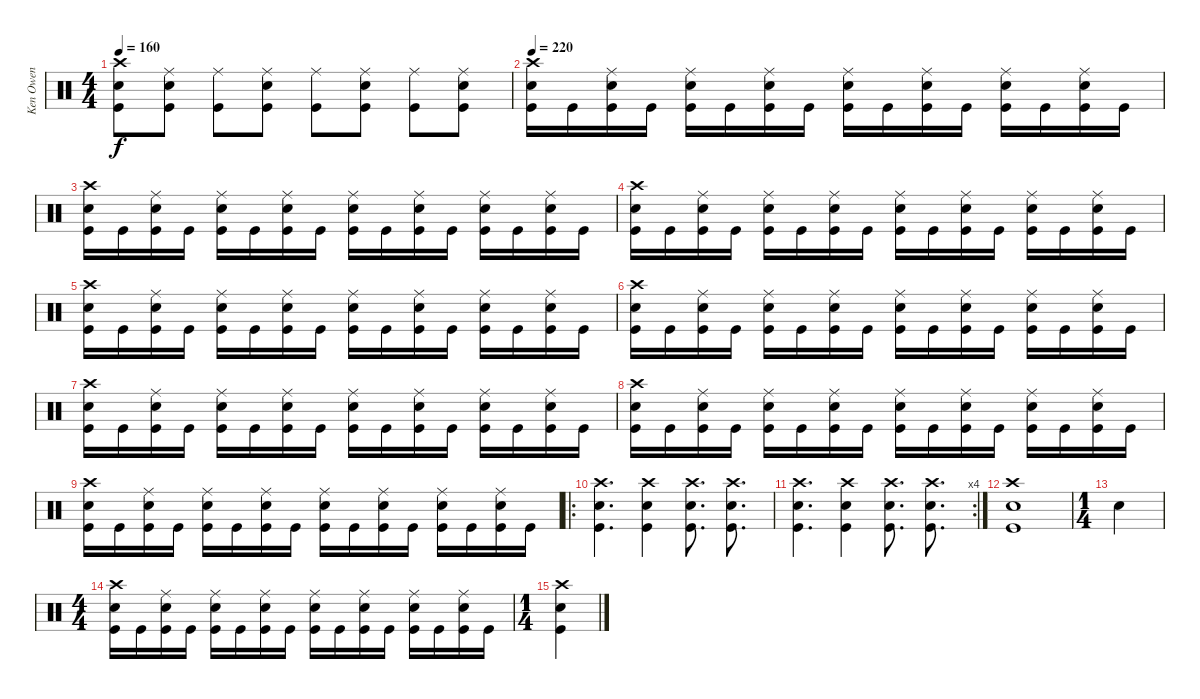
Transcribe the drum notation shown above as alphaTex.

\track ("Ken Owen" "Ken Owen") {instrument percussion}
\staff {score}
\articulation defaults
\ts (4 4)
\tempo 160
\clef neutral
\ks c
("Crash high (hit)" "Snare (hit) 2" "Kick (hit)").8{dy f} ("Ride (middle)" "Snare (hit) 2" "Kick (hit)").8 ("Ride (middle)" "Kick (hit)").8 ("Ride (middle)" "Snare (hit) 2" "Kick (hit)").8 ("Ride (middle)" "Kick (hit)").8 ("Ride (middle)" "Snare (hit) 2" "Kick (hit)").8 ("Ride (middle)" "Kick (hit)").8 ("Ride (middle)" "Snare (hit) 2" "Kick (hit)").8 |
\tempo 220
("Crash high (hit)" "Snare (hit) 2" "Kick (hit)").16 "Kick (hit)".16 ("Ride (middle)" "Snare (hit) 2" "Kick (hit)").16 "Kick (hit)".16 ("Ride (middle)" "Snare (hit) 2" "Kick (hit)").16 "Kick (hit)".16 ("Ride (middle)" "Snare (hit) 2" "Kick (hit)").16 "Kick (hit)".16 ("Ride (middle)" "Snare (hit) 2" "Kick (hit)").16 "Kick (hit)".16 ("Ride (middle)" "Snare (hit) 2" "Kick (hit)").16 "Kick (hit)".16 ("Ride (middle)" "Snare (hit) 2" "Kick (hit)").16 "Kick (hit)".16 ("Ride (middle)" "Snare (hit) 2" "Kick (hit)").16 "Kick (hit)".16 |
("Crash high (hit)" "Snare (hit) 2" "Kick (hit)").16 "Kick (hit)".16 ("Ride (middle)" "Snare (hit) 2" "Kick (hit)").16 "Kick (hit)".16 ("Ride (middle)" "Snare (hit) 2" "Kick (hit)").16 "Kick (hit)".16 ("Ride (middle)" "Snare (hit) 2" "Kick (hit)").16 "Kick (hit)".16 ("Ride (middle)" "Snare (hit) 2" "Kick (hit)").16 "Kick (hit)".16 ("Ride (middle)" "Snare (hit) 2" "Kick (hit)").16 "Kick (hit)".16 ("Ride (middle)" "Snare (hit) 2" "Kick (hit)").16 "Kick (hit)".16 ("Ride (middle)" "Snare (hit) 2" "Kick (hit)").16 "Kick (hit)".16 |
("Crash high (hit)" "Snare (hit) 2" "Kick (hit)").16 "Kick (hit)".16 ("Ride (middle)" "Snare (hit) 2" "Kick (hit)").16 "Kick (hit)".16 ("Ride (middle)" "Snare (hit) 2" "Kick (hit)").16 "Kick (hit)".16 ("Ride (middle)" "Snare (hit) 2" "Kick (hit)").16 "Kick (hit)".16 ("Ride (middle)" "Snare (hit) 2" "Kick (hit)").16 "Kick (hit)".16 ("Ride (middle)" "Snare (hit) 2" "Kick (hit)").16 "Kick (hit)".16 ("Ride (middle)" "Snare (hit) 2" "Kick (hit)").16 "Kick (hit)".16 ("Ride (middle)" "Snare (hit) 2" "Kick (hit)").16 "Kick (hit)".16 |
("Crash high (hit)" "Snare (hit) 2" "Kick (hit)").16 "Kick (hit)".16 ("Ride (middle)" "Snare (hit) 2" "Kick (hit)").16 "Kick (hit)".16 ("Ride (middle)" "Snare (hit) 2" "Kick (hit)").16 "Kick (hit)".16 ("Ride (middle)" "Snare (hit) 2" "Kick (hit)").16 "Kick (hit)".16 ("Ride (middle)" "Snare (hit) 2" "Kick (hit)").16 "Kick (hit)".16 ("Ride (middle)" "Snare (hit) 2" "Kick (hit)").16 "Kick (hit)".16 ("Ride (middle)" "Snare (hit) 2" "Kick (hit)").16 "Kick (hit)".16 ("Ride (middle)" "Snare (hit) 2" "Kick (hit)").16 "Kick (hit)".16 |
("Crash high (hit)" "Snare (hit) 2" "Kick (hit)").16 "Kick (hit)".16 ("Ride (middle)" "Snare (hit) 2" "Kick (hit)").16 "Kick (hit)".16 ("Ride (middle)" "Snare (hit) 2" "Kick (hit)").16 "Kick (hit)".16 ("Ride (middle)" "Snare (hit) 2" "Kick (hit)").16 "Kick (hit)".16 ("Ride (middle)" "Snare (hit) 2" "Kick (hit)").16 "Kick (hit)".16 ("Ride (middle)" "Snare (hit) 2" "Kick (hit)").16 "Kick (hit)".16 ("Ride (middle)" "Snare (hit) 2" "Kick (hit)").16 "Kick (hit)".16 ("Ride (middle)" "Snare (hit) 2" "Kick (hit)").16 "Kick (hit)".16 |
("Crash high (hit)" "Snare (hit) 2" "Kick (hit)").16 "Kick (hit)".16 ("Ride (middle)" "Snare (hit) 2" "Kick (hit)").16 "Kick (hit)".16 ("Ride (middle)" "Snare (hit) 2" "Kick (hit)").16 "Kick (hit)".16 ("Ride (middle)" "Snare (hit) 2" "Kick (hit)").16 "Kick (hit)".16 ("Ride (middle)" "Snare (hit) 2" "Kick (hit)").16 "Kick (hit)".16 ("Ride (middle)" "Snare (hit) 2" "Kick (hit)").16 "Kick (hit)".16 ("Ride (middle)" "Snare (hit) 2" "Kick (hit)").16 "Kick (hit)".16 ("Ride (middle)" "Snare (hit) 2" "Kick (hit)").16 "Kick (hit)".16 |
("Crash high (hit)" "Snare (hit) 2" "Kick (hit)").16 "Kick (hit)".16 ("Ride (middle)" "Snare (hit) 2" "Kick (hit)").16 "Kick (hit)".16 ("Ride (middle)" "Snare (hit) 2" "Kick (hit)").16 "Kick (hit)".16 ("Ride (middle)" "Snare (hit) 2" "Kick (hit)").16 "Kick (hit)".16 ("Ride (middle)" "Snare (hit) 2" "Kick (hit)").16 "Kick (hit)".16 ("Ride (middle)" "Snare (hit) 2" "Kick (hit)").16 "Kick (hit)".16 ("Ride (middle)" "Snare (hit) 2" "Kick (hit)").16 "Kick (hit)".16 ("Ride (middle)" "Snare (hit) 2" "Kick (hit)").16 "Kick (hit)".16 |
("Crash high (hit)" "Snare (hit) 2" "Kick (hit)").16 "Kick (hit)".16 ("Ride (middle)" "Snare (hit) 2" "Kick (hit)").16 "Kick (hit)".16 ("Ride (middle)" "Snare (hit) 2" "Kick (hit)").16 "Kick (hit)".16 ("Ride (middle)" "Snare (hit) 2" "Kick (hit)").16 "Kick (hit)".16 ("Ride (middle)" "Snare (hit) 2" "Kick (hit)").16 "Kick (hit)".16 ("Ride (middle)" "Snare (hit) 2" "Kick (hit)").16 "Kick (hit)".16 ("Ride (middle)" "Snare (hit) 2" "Kick (hit)").16 "Kick (hit)".16 ("Ride (middle)" "Snare (hit) 2" "Kick (hit)").16 "Kick (hit)".16 |
\ro
("Crash high (hit)" "Snare (hit) 2" "Kick (hit)").4{d} ("Crash high (hit)" "Snare (hit) 2" "Kick (hit)").4 ("Crash high (hit)" "Snare (hit) 2" "Kick (hit)").8{d} ("Crash high (hit)" "Snare (hit) 2" "Kick (hit)").8{d} |
\rc 4
("Crash high (hit)" "Snare (hit) 2" "Kick (hit)").4{d} ("Crash high (hit)" "Snare (hit) 2" "Kick (hit)").4 ("Crash high (hit)" "Snare (hit) 2" "Kick (hit)").8{d} ("Crash high (hit)" "Snare (hit) 2" "Kick (hit)").8{d} |
("Crash high (hit)" "Snare (hit) 2" "Kick (hit)").1 |
\ts (1 4)
"Snare (hit) 2".4 |
\ts (4 4)
("Crash high (hit)" "Snare (hit) 2" "Kick (hit)").16 "Kick (hit)".16 ("Ride (middle)" "Snare (hit) 2" "Kick (hit)").16 "Kick (hit)".16 ("Ride (middle)" "Snare (hit) 2" "Kick (hit)").16 "Kick (hit)".16 ("Ride (middle)" "Snare (hit) 2" "Kick (hit)").16 "Kick (hit)".16 ("Ride (middle)" "Snare (hit) 2" "Kick (hit)").16 "Kick (hit)".16 ("Ride (middle)" "Snare (hit) 2" "Kick (hit)").16 "Kick (hit)".16 ("Ride (middle)" "Snare (hit) 2" "Kick (hit)").16 "Kick (hit)".16 ("Ride (middle)" "Snare (hit) 2" "Kick (hit)").16 "Kick (hit)".16 |
\ts (1 4)
("Crash high (hit)" "Snare (hit) 2" "Kick (hit)").4
